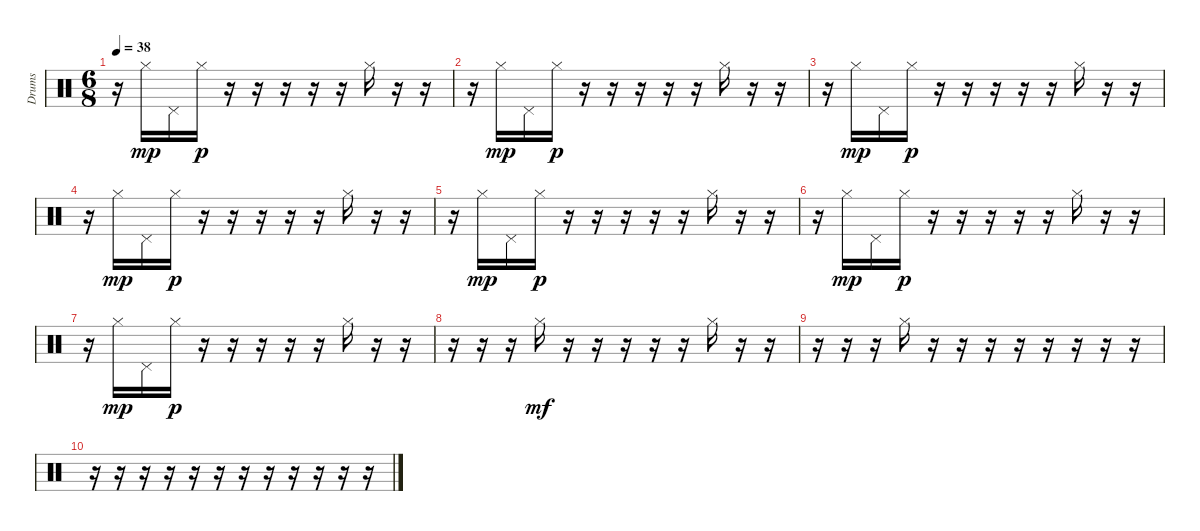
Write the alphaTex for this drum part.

\track ("Drums" "Drums") {instrument percussion}
\staff {score}
\articulation defaults
\ts (6 8)
\tempo 38
\clef neutral
\ks c
r.16{dy p} "Hi-Hat (closed)".16{dy mp} "Pedal Hi-Hat (hit)".16 "Hi-Hat (closed)".16{dy p} r.16 r.16 r.16 r.16 r.16 "Hi-Hat (closed)".16 r.16 r.16 |
r.16 "Hi-Hat (closed)".16{dy mp} "Pedal Hi-Hat (hit)".16 "Hi-Hat (closed)".16{dy p} r.16 r.16 r.16 r.16 r.16 "Hi-Hat (closed)".16 r.16 r.16 |
r.16 "Hi-Hat (closed)".16{dy mp} "Pedal Hi-Hat (hit)".16 "Hi-Hat (closed)".16{dy p} r.16 r.16 r.16 r.16 r.16 "Hi-Hat (closed)".16 r.16 r.16 |
r.16 "Hi-Hat (closed)".16{dy mp} "Pedal Hi-Hat (hit)".16 "Hi-Hat (closed)".16{dy p} r.16 r.16 r.16 r.16 r.16 "Hi-Hat (closed)".16 r.16 r.16 |
r.16 "Hi-Hat (closed)".16{dy mp} "Pedal Hi-Hat (hit)".16 "Hi-Hat (closed)".16{dy p} r.16 r.16 r.16 r.16 r.16 "Hi-Hat (closed)".16 r.16 r.16 |
r.16 "Hi-Hat (closed)".16{dy mp} "Pedal Hi-Hat (hit)".16 "Hi-Hat (closed)".16{dy p} r.16 r.16 r.16 r.16 r.16 "Hi-Hat (closed)".16 r.16 r.16 |
r.16 "Hi-Hat (closed)".16{dy mp} "Pedal Hi-Hat (hit)".16 "Hi-Hat (closed)".16{dy p} r.16 r.16 r.16 r.16 r.16 "Hi-Hat (closed)".16 r.16 r.16 |
r.16 r.16 r.16 "Hi-Hat (closed)".16{dy mf} r.16 r.16 r.16 r.16 r.16 "Hi-Hat (closed)".16 r.16 r.16 |
r.16 r.16 r.16 "Hi-Hat (closed)".16 r.16 r.16 r.16 r.16 r.16 r.16 r.16 r.16 |
r.16 r.16 r.16 r.16 r.16 r.16 r.16 r.16 r.16 r.16 r.16 r.16
